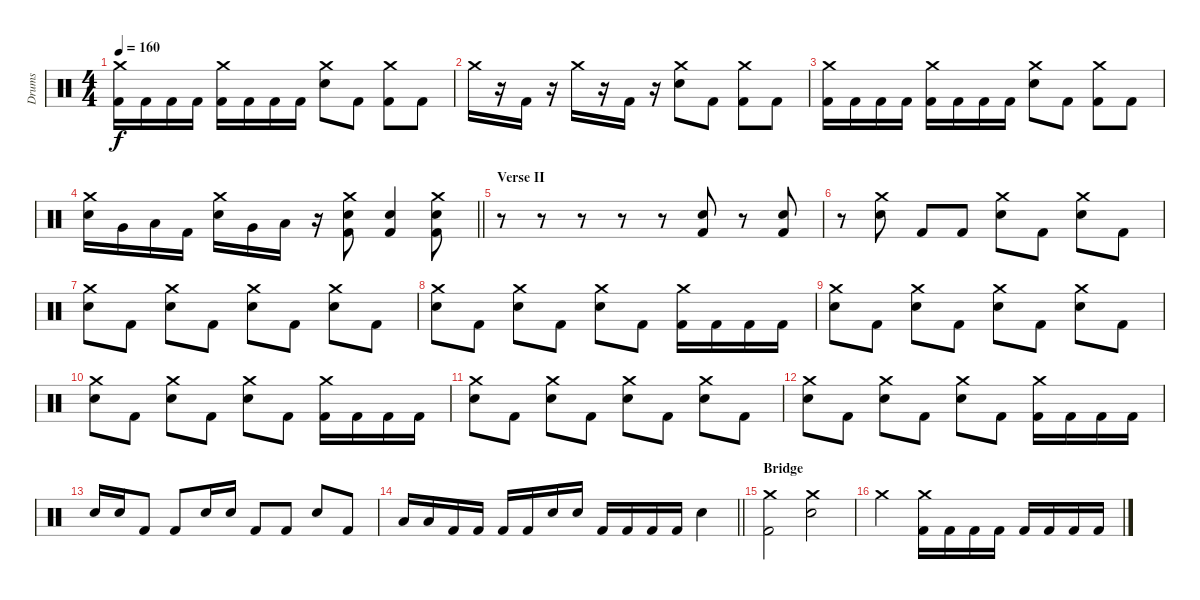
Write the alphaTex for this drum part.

\track ("Drums" "Drums") {instrument percussion}
\staff {score}
\articulation defaults
\ts (4 4)
\tempo 160
\clef neutral
\ks c
("Crash medium (hit)" "Kick (hit) 2").16{dy f} "Kick (hit) 2".16 "Kick (hit) 2".16 "Kick (hit) 2".16 ("Crash medium (hit)" "Kick (hit) 2").16 "Kick (hit) 2".16 "Kick (hit) 2".16 "Kick (hit) 2".16 ("Crash medium (hit)" "Snare (hit) 2").8 "Kick (hit) 2".8 ("Crash medium (hit)" "Kick (hit) 2").8 "Kick (hit) 2".8 |
"Crash medium (hit)".16 r.16 "Kick (hit) 2".16 r.16 "Crash medium (hit)".16 r.16 "Kick (hit) 2".16 r.16 ("Crash medium (hit)" "Snare (hit) 2").8 "Kick (hit) 2".8 ("Crash medium (hit)" "Kick (hit) 2").8 "Kick (hit) 2".8 |
("Crash medium (hit)" "Kick (hit) 2").16 "Kick (hit) 2".16 "Kick (hit) 2".16 "Kick (hit) 2".16 ("Crash medium (hit)" "Kick (hit) 2").16 "Kick (hit) 2".16 "Kick (hit) 2".16 "Kick (hit) 2".16 ("Crash medium (hit)" "Snare (hit) 2").8 "Kick (hit) 2".8 ("Crash medium (hit)" "Kick (hit) 2").8 "Kick (hit) 2".8 |
\barLineRight lightlight
("Crash medium (hit)" "Snare (hit) 2").16 "Very Low Tom (hit)".16 "Low Floor Tom (hit)".16 "Kick (hit) 2".16 ("Crash medium (hit)" "Snare (hit) 2").16 "Very Low Tom (hit)".16 "Low Floor Tom (hit)".16 r.16 ("Crash medium (hit)" "Snare (hit) 2" "Kick (hit) 2").8 ("Snare (hit) 2" "Kick (hit) 2").4 ("Crash medium (hit)" "Snare (hit) 2" "Kick (hit) 2").8 |
\section ("" "Verse II")
r.8 r.8 r.8 r.8 r.8 ("Snare (hit) 2" "Kick (hit) 2").8 r.8 ("Snare (hit) 2" "Kick (hit) 2").8 |
r.8 ("Crash medium (hit)" "Snare (hit) 2").8 "Kick (hit) 2".8 "Kick (hit) 2".8 ("Crash medium (hit)" "Snare (hit) 2").8 "Kick (hit) 2".8 ("Crash medium (hit)" "Snare (hit) 2").8 "Kick (hit) 2".8 |
("Crash medium (hit)" "Snare (hit) 2").8 "Kick (hit) 2".8 ("Crash medium (hit)" "Snare (hit) 2").8 "Kick (hit) 2".8 ("Crash medium (hit)" "Snare (hit) 2").8 "Kick (hit) 2".8 ("Crash medium (hit)" "Snare (hit) 2").8 "Kick (hit) 2".8 |
("Crash medium (hit)" "Snare (hit) 2").8 "Kick (hit) 2".8 ("Crash medium (hit)" "Snare (hit) 2").8 "Kick (hit) 2".8 ("Crash medium (hit)" "Snare (hit) 2").8 "Kick (hit) 2".8 ("Crash medium (hit)" "Kick (hit) 2").16 "Kick (hit) 2".16 "Kick (hit) 2".16 "Kick (hit) 2".16 |
("Crash medium (hit)" "Snare (hit) 2").8 "Kick (hit) 2".8 ("Crash medium (hit)" "Snare (hit) 2").8 "Kick (hit) 2".8 ("Crash medium (hit)" "Snare (hit) 2").8 "Kick (hit) 2".8 ("Crash medium (hit)" "Snare (hit) 2").8 "Kick (hit) 2".8 |
("Crash medium (hit)" "Snare (hit) 2").8 "Kick (hit) 2".8 ("Crash medium (hit)" "Snare (hit) 2").8 "Kick (hit) 2".8 ("Crash medium (hit)" "Snare (hit) 2").8 "Kick (hit) 2".8 ("Crash medium (hit)" "Kick (hit) 2").16 "Kick (hit) 2".16 "Kick (hit) 2".16 "Kick (hit) 2".16 |
("Crash medium (hit)" "Snare (hit) 2").8 "Kick (hit) 2".8 ("Crash medium (hit)" "Snare (hit) 2").8 "Kick (hit) 2".8 ("Crash medium (hit)" "Snare (hit) 2").8 "Kick (hit) 2".8 ("Crash medium (hit)" "Snare (hit) 2").8 "Kick (hit) 2".8 |
("Crash medium (hit)" "Snare (hit) 2").8 "Kick (hit) 2".8 ("Crash medium (hit)" "Snare (hit) 2").8 "Kick (hit) 2".8 ("Crash medium (hit)" "Snare (hit) 2").8 "Kick (hit) 2".8 ("Crash medium (hit)" "Kick (hit) 2").16 "Kick (hit) 2".16 "Kick (hit) 2".16 "Kick (hit) 2".16 |
"Snare (hit) 2".16 "Snare (hit) 2".16 "Kick (hit) 2".8 "Kick (hit) 2".8 "Snare (hit) 2".16 "Snare (hit) 2".16 "Kick (hit) 2".8 "Kick (hit) 2".8 "Snare (hit) 2".8 "Kick (hit) 2".8 |
\barLineRight lightlight "Low Tom (hit)".16 "Low Tom (hit)".16 "Kick (hit) 2".16 "Kick (hit) 2".16 "Kick (hit) 2".16 "Kick (hit) 2".16 "Snare (hit) 2".16 "Snare (hit) 2".16 "Kick (hit) 2".16 "Kick (hit) 2".16 "Kick (hit) 2".16 "Kick (hit) 2".16 "Snare (hit) 2".4
|
\section ("" "Bridge")
("Crash medium (hit)" "Kick (hit) 2").2 ("Crash medium (hit)" "Snare (hit) 2").2 |
"Crash medium (hit)".2 ("Crash medium (hit)" "Kick (hit) 2").16 "Kick (hit) 2".16 "Kick (hit) 2".16 "Kick (hit) 2".16 "Kick (hit) 2".16 "Kick (hit) 2".16 "Kick (hit) 2".16 "Kick (hit) 2".16
